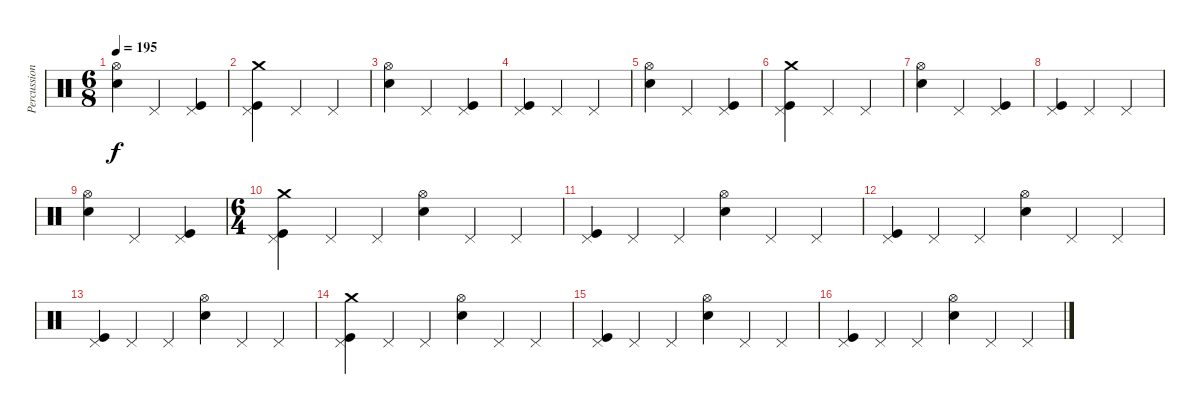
\track ("Percussion" "Percussion") {instrument percussion}
\staff {score}
\articulation defaults
\ts (6 8)
\tempo 195
\clef neutral
\ks c
("Hi-Hat (open)" "Electric Snare (hit)").4{dy f} "Pedal Hi-Hat (hit)".4 ("Pedal Hi-Hat (hit)" "Kick (hit)").4 |
("Crash medium (hit)" "Pedal Hi-Hat (hit)" "Kick (hit)").4 "Pedal Hi-Hat (hit)".4 "Pedal Hi-Hat (hit)".4 |
("Hi-Hat (open)" "Electric Snare (hit)").4 "Pedal Hi-Hat (hit)".4 ("Pedal Hi-Hat (hit)" "Kick (hit)").4 |
("Pedal Hi-Hat (hit)" "Kick (hit)").4 "Pedal Hi-Hat (hit)".4 "Pedal Hi-Hat (hit)".4 |
("Hi-Hat (open)" "Electric Snare (hit)").4 "Pedal Hi-Hat (hit)".4 ("Pedal Hi-Hat (hit)" "Kick (hit)").4 |
("Crash medium (hit)" "Pedal Hi-Hat (hit)" "Kick (hit)").4 "Pedal Hi-Hat (hit)".4 "Pedal Hi-Hat (hit)".4 |
("Hi-Hat (open)" "Electric Snare (hit)").4 "Pedal Hi-Hat (hit)".4 ("Pedal Hi-Hat (hit)" "Kick (hit)").4 |
("Pedal Hi-Hat (hit)" "Kick (hit)").4 "Pedal Hi-Hat (hit)".4 "Pedal Hi-Hat (hit)".4 |
("Hi-Hat (open)" "Electric Snare (hit)").4 "Pedal Hi-Hat (hit)".4 ("Pedal Hi-Hat (hit)" "Kick (hit)").4 |
\ts (6 4)
("Crash medium (hit)" "Pedal Hi-Hat (hit)" "Kick (hit)").4 "Pedal Hi-Hat (hit)".4 "Pedal Hi-Hat (hit)".4 ("Hi-Hat (open)" "Electric Snare (hit)").4 "Pedal Hi-Hat (hit)".4 "Pedal Hi-Hat (hit)".4 |
("Pedal Hi-Hat (hit)" "Kick (hit)").4 "Pedal Hi-Hat (hit)".4 "Pedal Hi-Hat (hit)".4 ("Hi-Hat (open)" "Electric Snare (hit)").4 "Pedal Hi-Hat (hit)".4 "Pedal Hi-Hat (hit)".4 |
("Pedal Hi-Hat (hit)" "Kick (hit)").4 "Pedal Hi-Hat (hit)".4 "Pedal Hi-Hat (hit)".4 ("Hi-Hat (open)" "Electric Snare (hit)").4 "Pedal Hi-Hat (hit)".4 "Pedal Hi-Hat (hit)".4 |
("Pedal Hi-Hat (hit)" "Kick (hit)").4 "Pedal Hi-Hat (hit)".4 "Pedal Hi-Hat (hit)".4 ("Hi-Hat (open)" "Electric Snare (hit)").4 "Pedal Hi-Hat (hit)".4 "Pedal Hi-Hat (hit)".4 |
("Crash medium (hit)" "Pedal Hi-Hat (hit)" "Kick (hit)").4 "Pedal Hi-Hat (hit)".4 "Pedal Hi-Hat (hit)".4 ("Hi-Hat (open)" "Electric Snare (hit)").4 "Pedal Hi-Hat (hit)".4 "Pedal Hi-Hat (hit)".4 |
("Pedal Hi-Hat (hit)" "Kick (hit)").4 "Pedal Hi-Hat (hit)".4 "Pedal Hi-Hat (hit)".4 ("Hi-Hat (open)" "Electric Snare (hit)").4 "Pedal Hi-Hat (hit)".4 "Pedal Hi-Hat (hit)".4 |
("Pedal Hi-Hat (hit)" "Kick (hit)").4 "Pedal Hi-Hat (hit)".4 "Pedal Hi-Hat (hit)".4 ("Hi-Hat (open)" "Electric Snare (hit)").4 "Pedal Hi-Hat (hit)".4 "Pedal Hi-Hat (hit)".4
